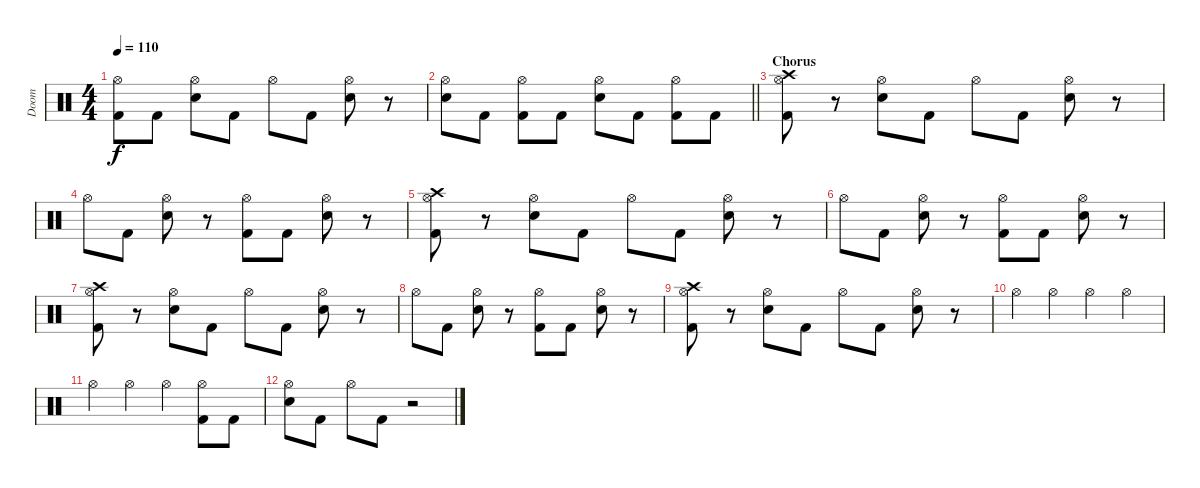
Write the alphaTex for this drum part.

\track ("Doom" "Doom") {instrument percussion}
\staff {score}
\articulation defaults
\ts (4 4)
\tempo 110
\clef neutral
\ks c
("Hi-Hat (open)" "Kick (hit) 2").8{dy f} "Kick (hit) 2".8 ("Hi-Hat (open)" "Electric Snare (hit)").8 "Kick (hit) 2".8 "Hi-Hat (open)".8 "Kick (hit) 2".8 ("Hi-Hat (open)" "Electric Snare (hit)").8 r.8 |
\barLineRight lightlight
("Hi-Hat (open)" "Electric Snare (hit)").8 "Kick (hit) 2".8 ("Hi-Hat (open)" "Kick (hit) 2").8 "Kick (hit) 2".8 ("Hi-Hat (open)" "Electric Snare (hit)").8 "Kick (hit) 2".8 ("Hi-Hat (open)" "Kick (hit) 2").8 "Kick (hit) 2".8 |
\section ("" "Chorus")
("Crash high (hit)" "Hi-Hat (open)" "Kick (hit) 2").8 r.8 ("Hi-Hat (open)" "Electric Snare (hit)").8 "Kick (hit) 2".8 "Hi-Hat (open)".8 "Kick (hit) 2".8 ("Hi-Hat (open)" "Electric Snare (hit)").8 r.8 |
"Hi-Hat (open)".8 "Kick (hit) 2".8 ("Hi-Hat (open)" "Electric Snare (hit)").8 r.8 ("Hi-Hat (open)" "Kick (hit) 2").8 "Kick (hit) 2".8 ("Hi-Hat (open)" "Electric Snare (hit)").8 r.8 |
("Crash high (hit)" "Hi-Hat (open)" "Kick (hit) 2").8 r.8 ("Hi-Hat (open)" "Electric Snare (hit)").8 "Kick (hit) 2".8 "Hi-Hat (open)".8 "Kick (hit) 2".8 ("Hi-Hat (open)" "Electric Snare (hit)").8 r.8 |
"Hi-Hat (open)".8 "Kick (hit) 2".8 ("Hi-Hat (open)" "Electric Snare (hit)").8 r.8 ("Hi-Hat (open)" "Kick (hit) 2").8 "Kick (hit) 2".8 ("Hi-Hat (open)" "Electric Snare (hit)").8 r.8 |
("Crash high (hit)" "Hi-Hat (open)" "Kick (hit) 2").8 r.8 ("Hi-Hat (open)" "Electric Snare (hit)").8 "Kick (hit) 2".8 "Hi-Hat (open)".8 "Kick (hit) 2".8 ("Hi-Hat (open)" "Electric Snare (hit)").8 r.8 |
"Hi-Hat (open)".8 "Kick (hit) 2".8 ("Hi-Hat (open)" "Electric Snare (hit)").8 r.8 ("Hi-Hat (open)" "Kick (hit) 2").8 "Kick (hit) 2".8 ("Hi-Hat (open)" "Electric Snare (hit)").8 r.8 |
("Crash high (hit)" "Hi-Hat (open)" "Kick (hit) 2").8 r.8 ("Hi-Hat (open)" "Electric Snare (hit)").8 "Kick (hit) 2".8 "Hi-Hat (open)".8 "Kick (hit) 2".8 ("Hi-Hat (open)" "Electric Snare (hit)").8 r.8 |
"Hi-Hat (open)".4 "Hi-Hat (open)".4 "Hi-Hat (open)".4 "Hi-Hat (open)".4 |
"Hi-Hat (open)".4 "Hi-Hat (open)".4 "Hi-Hat (open)".4 ("Hi-Hat (open)" "Kick (hit) 2").8 "Kick (hit) 2".8 |
("Hi-Hat (open)" "Electric Snare (hit)").8 "Kick (hit) 2".8 "Hi-Hat (open)".8 "Kick (hit) 2".8 r.2
